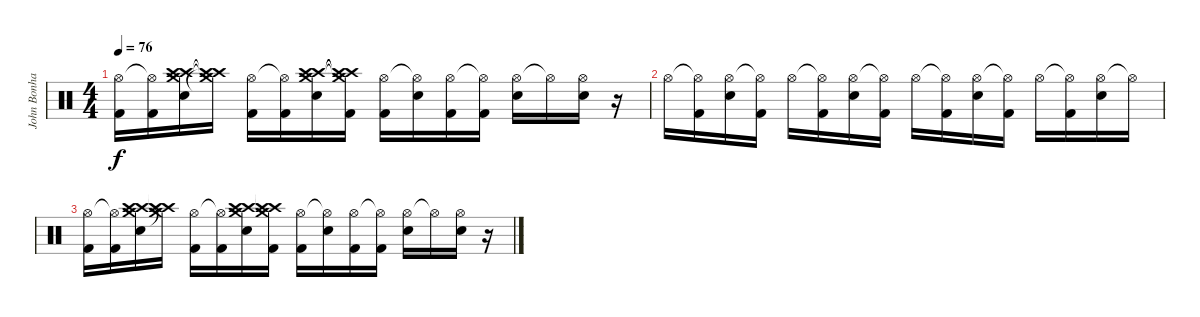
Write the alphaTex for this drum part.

\track ("John Bonham" "John Bonha") {instrument percussion}
\staff {score}
\articulation defaults
\ts (4 4)
\tempo 76
\clef neutral
\ks c
("Hi-Hat (open)" "Kick (hit) 2").16{dy f} ("Hi-Hat (open)"{t} "Kick (hit) 2").16 ("Crash high (hit)" "Crash medium (hit)" "Electric Snare (hit)" "Crash high (hit)").16 ("Crash high (hit)"{t} "Crash medium (hit)"{t} "Crash high (hit)"{t}).16 ("Hi-Hat (open)" "Kick (hit) 2").16 ("Hi-Hat (open)"{t} "Kick (hit) 2").16 ("Crash high (hit)" "Crash medium (hit)" "Electric Snare (hit)" "Crash high (hit)").16 ("Crash high (hit)"{t} "Crash medium (hit)"{t} "Kick (hit) 2" "Crash high (hit)"{t}).16 ("Hi-Hat (open)" "Kick (hit) 2").16 ("Hi-Hat (open)"{t} "Electric Snare (hit)").16 ("Hi-Hat (open)" "Kick (hit) 2").16 ("Hi-Hat (open)"{t} "Kick (hit) 2").16 ("Hi-Hat (open)" "Electric Snare (hit)").16 "Hi-Hat (open)"{t}.16 ("Hi-Hat (open)" "Electric Snare (hit)").16 r.16 |
"Hi-Hat (open)".16 ("Hi-Hat (open)"{t} "Kick (hit) 2").16 ("Hi-Hat (open)" "Electric Snare (hit)").16 ("Hi-Hat (open)"{t} "Kick (hit) 2").16 "Hi-Hat (open)".16 ("Hi-Hat (open)"{t} "Kick (hit) 2").16 ("Hi-Hat (open)" "Electric Snare (hit)").16 ("Hi-Hat (open)"{t} "Kick (hit) 2").16 "Hi-Hat (open)".16 ("Hi-Hat (open)"{t} "Kick (hit) 2").16 ("Hi-Hat (open)" "Electric Snare (hit)").16 ("Hi-Hat (open)"{t} "Kick (hit) 2").16 "Hi-Hat (open)".16 ("Hi-Hat (open)"{t} "Kick (hit) 2").16 ("Hi-Hat (open)" "Electric Snare (hit)").16 "Hi-Hat (open)"{t}.16 |
("Hi-Hat (open)" "Kick (hit) 2").16 ("Hi-Hat (open)"{t} "Kick (hit) 2").16 ("Crash high (hit)" "Crash medium (hit)" "Electric Snare (hit)" "Crash high (hit)").16 ("Crash high (hit)"{t} "Crash medium (hit)"{t} "Crash high (hit)"{t}).16 ("Hi-Hat (open)" "Kick (hit) 2").16 ("Hi-Hat (open)"{t} "Kick (hit) 2").16 ("Crash high (hit)" "Crash medium (hit)" "Electric Snare (hit)" "Crash high (hit)").16 ("Crash high (hit)"{t} "Crash medium (hit)"{t} "Kick (hit) 2" "Crash high (hit)"{t}).16 ("Hi-Hat (open)" "Kick (hit) 2").16 ("Hi-Hat (open)"{t} "Electric Snare (hit)").16 ("Hi-Hat (open)" "Kick (hit) 2").16 ("Hi-Hat (open)"{t} "Kick (hit) 2").16 ("Hi-Hat (open)" "Electric Snare (hit)").16 "Hi-Hat (open)"{t}.16 ("Hi-Hat (open)" "Electric Snare (hit)").16 r.16
